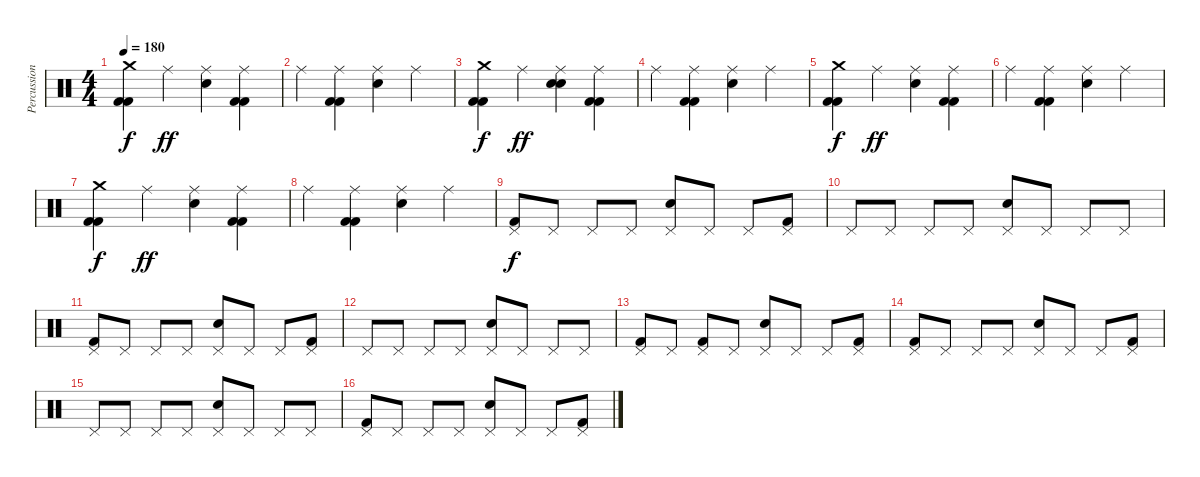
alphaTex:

\track ("Percussion" "Percussion") {instrument percussion}
\staff {score}
\articulation defaults
\ts (4 4)
\tempo 180
\clef neutral
\ks c
("Crash medium (hit)" "Kick (hit) 2" "Kick (hit) 2").4{dy f} "Ride (middle)".4{dy ff} ("Ride (middle)" "Electric Snare (hit)").4 ("Ride (middle)" "Kick (hit) 2" "Kick (hit) 2").4 |
"Ride (middle)".4 ("Ride (middle)" "Kick (hit) 2" "Kick (hit) 2").4 ("Ride (middle)" "Electric Snare (hit)").4 "Ride (middle)".4 |
("Crash medium (hit)" "Kick (hit) 2" "Kick (hit) 2").4{dy f} "Ride (middle)".4{dy ff} ("Ride (middle)" "Electric Snare (hit)" "Snare (hit) 2").4 ("Ride (middle)" "Kick (hit) 2" "Kick (hit) 2").4 |
"Ride (middle)".4 ("Ride (middle)" "Kick (hit) 2" "Kick (hit) 2").4 ("Ride (middle)" "Electric Snare (hit)").4 "Ride (middle)".4 |
("Crash medium (hit)" "Kick (hit) 2" "Kick (hit) 2").4{dy f} "Ride (middle)".4{dy ff} ("Ride (middle)" "Electric Snare (hit)").4 ("Ride (middle)" "Kick (hit) 2" "Kick (hit) 2").4 |
"Ride (middle)".4 ("Ride (middle)" "Kick (hit) 2" "Kick (hit) 2").4 ("Ride (middle)" "Electric Snare (hit)").4 "Ride (middle)".4 |
("Crash medium (hit)" "Kick (hit) 2" "Kick (hit) 2").4{dy f} "Ride (middle)".4{dy ff} ("Ride (middle)" "Electric Snare (hit)").4 ("Ride (middle)" "Kick (hit) 2" "Kick (hit) 2").4 |
"Ride (middle)".4 ("Ride (middle)" "Kick (hit) 2" "Kick (hit) 2").4 ("Ride (middle)" "Electric Snare (hit)").4 "Ride (middle)".4 |
("Pedal Hi-Hat (hit)" "Kick (hit) 2").8{dy f} "Pedal Hi-Hat (hit)".8 "Pedal Hi-Hat (hit)".8 "Pedal Hi-Hat (hit)".8 ("Pedal Hi-Hat (hit)" "Electric Snare (hit)").8 "Pedal Hi-Hat (hit)".8 "Pedal Hi-Hat (hit)".8 ("Pedal Hi-Hat (hit)" "Kick (hit) 2").8 |
"Pedal Hi-Hat (hit)".8 "Pedal Hi-Hat (hit)".8 "Pedal Hi-Hat (hit)".8 "Pedal Hi-Hat (hit)".8 ("Pedal Hi-Hat (hit)" "Electric Snare (hit)").8 "Pedal Hi-Hat (hit)".8 "Pedal Hi-Hat (hit)".8 "Pedal Hi-Hat (hit)".8 |
("Pedal Hi-Hat (hit)" "Kick (hit) 2").8 "Pedal Hi-Hat (hit)".8 "Pedal Hi-Hat (hit)".8 "Pedal Hi-Hat (hit)".8 ("Pedal Hi-Hat (hit)" "Electric Snare (hit)").8 "Pedal Hi-Hat (hit)".8 "Pedal Hi-Hat (hit)".8 ("Pedal Hi-Hat (hit)" "Kick (hit) 2").8 |
"Pedal Hi-Hat (hit)".8 "Pedal Hi-Hat (hit)".8 "Pedal Hi-Hat (hit)".8 "Pedal Hi-Hat (hit)".8 ("Pedal Hi-Hat (hit)" "Electric Snare (hit)").8 "Pedal Hi-Hat (hit)".8 "Pedal Hi-Hat (hit)".8 "Pedal Hi-Hat (hit)".8 |
("Pedal Hi-Hat (hit)" "Kick (hit) 2").8 "Pedal Hi-Hat (hit)".8 ("Pedal Hi-Hat (hit)" "Kick (hit) 2").8 "Pedal Hi-Hat (hit)".8 ("Pedal Hi-Hat (hit)" "Electric Snare (hit)").8 "Pedal Hi-Hat (hit)".8 "Pedal Hi-Hat (hit)".8 ("Pedal Hi-Hat (hit)" "Kick (hit) 2").8 |
("Pedal Hi-Hat (hit)" "Kick (hit) 2").8 "Pedal Hi-Hat (hit)".8 "Pedal Hi-Hat (hit)".8 "Pedal Hi-Hat (hit)".8 ("Pedal Hi-Hat (hit)" "Electric Snare (hit)").8 "Pedal Hi-Hat (hit)".8 "Pedal Hi-Hat (hit)".8 ("Pedal Hi-Hat (hit)" "Kick (hit) 2").8 |
"Pedal Hi-Hat (hit)".8 "Pedal Hi-Hat (hit)".8 "Pedal Hi-Hat (hit)".8 "Pedal Hi-Hat (hit)".8 ("Pedal Hi-Hat (hit)" "Electric Snare (hit)").8 "Pedal Hi-Hat (hit)".8 "Pedal Hi-Hat (hit)".8 "Pedal Hi-Hat (hit)".8 |
("Pedal Hi-Hat (hit)" "Kick (hit) 2").8 "Pedal Hi-Hat (hit)".8 "Pedal Hi-Hat (hit)".8 "Pedal Hi-Hat (hit)".8 ("Pedal Hi-Hat (hit)" "Electric Snare (hit)").8 "Pedal Hi-Hat (hit)".8 "Pedal Hi-Hat (hit)".8 ("Pedal Hi-Hat (hit)" "Kick (hit) 2").8
